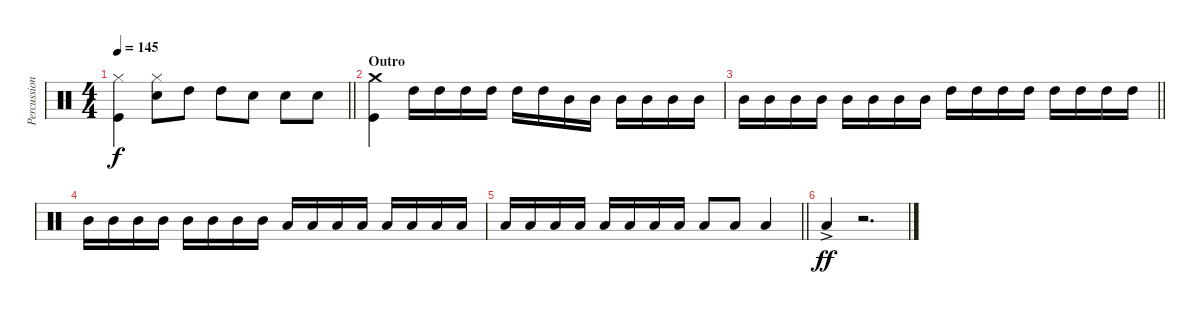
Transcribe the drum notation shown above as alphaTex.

\track ("Percussion" "Percussion") {instrument percussion}
\staff {score}
\articulation defaults
\ts (4 4)
\tempo 145
\clef neutral
\barLineRight lightlight
\ks c
("Kick (hit)" "Hi-Hat (closed)").4{dy f} ("Hi-Hat (closed)" "Snare (hit) 2").8 "High Tom (hit)".8 "High Tom (hit)".8 "Snare (hit) 2".8 "Snare (hit) 2".8 "Snare (hit) 2".8 |
\section ("" "Outro")
("Kick (hit)" "Crash medium (hit)").4 "High Tom (hit)".16 "High Tom (hit)".16 "High Tom (hit)".16 "High Tom (hit)".16 "High Tom (hit)".16 "High Tom (hit)".16 "Mid Tom (hit)".16 "Mid Tom (hit)".16 "Mid Tom (hit)".16 "Mid Tom (hit)".16 "Mid Tom (hit)".16 "Mid Tom (hit)".16 |
\barLineRight lightlight "Mid Tom (hit)".16 "Mid Tom (hit)".16 "Mid Tom (hit)".16 "Mid Tom (hit)".16 "Mid Tom (hit)".16 "Mid Tom (hit)".16 "Mid Tom (hit)".16 "Mid Tom (hit)".16 "High Tom (hit)".16 "High Tom (hit)".16 "High Tom (hit)".16 "High Tom (hit)".16 "High Tom (hit)".16 "High Tom (hit)".16 "High Tom (hit)".16 "High Tom (hit)".16
|
"Mid Tom (hit)".16 "Mid Tom (hit)".16 "Mid Tom (hit)".16 "Mid Tom (hit)".16 "Mid Tom (hit)".16 "Mid Tom (hit)".16 "Mid Tom (hit)".16 "Mid Tom (hit)".16 "Low Tom (hit)".16 "Low Tom (hit)".16 "Low Tom (hit)".16 "Low Tom (hit)".16 "Low Tom (hit)".16 "Low Tom (hit)".16 "Low Tom (hit)".16 "Low Tom (hit)".16 |
\barLineRight lightlight "Low Tom (hit)".16 "Low Tom (hit)".16 "Low Tom (hit)".16 "Low Tom (hit)".16 "Low Tom (hit)".16 "Low Tom (hit)".16 "Low Tom (hit)".16 "Low Tom (hit)".16 "Low Tom (hit)".8 "Low Tom (hit)".8 "Low Tom (hit)".4
|
"Low Tom (hit)"{ac}.4{dy ff} r.2{d}
